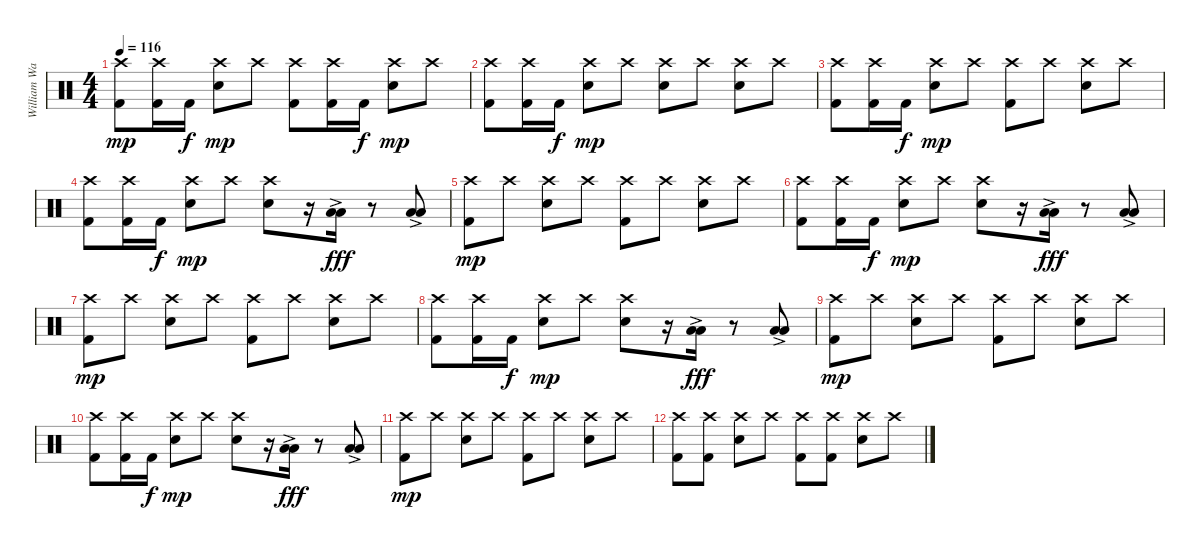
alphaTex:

\track ("William Ward" "William Wa") {instrument percussion}
\staff {score}
\articulation defaults
\ts (4 4)
\tempo 116
\clef neutral
\ks c
("Crash high (hit)" "Kick (hit) 2").8{dy mp} ("Crash high (hit)" "Kick (hit) 2").16 "Kick (hit) 2".16{dy f} ("Crash high (hit)" "Snare (hit) 2").8{dy mp} "Crash high (hit)".8 ("Crash high (hit)" "Kick (hit) 2").8 ("Crash high (hit)" "Kick (hit) 2").16 "Kick (hit) 2".16{dy f} ("Crash high (hit)" "Snare (hit) 2").8{dy mp} "Crash high (hit)".8 |
("Crash high (hit)" "Kick (hit) 2").8 ("Crash high (hit)" "Kick (hit) 2").16 "Kick (hit) 2".16{dy f} ("Crash high (hit)" "Snare (hit) 2").8{dy mp} "Crash high (hit)".8 ("Crash high (hit)" "Snare (hit) 2").8 "Crash high (hit)".8 ("Crash high (hit)" "Snare (hit) 2").8 "Crash high (hit)".8 |
("Crash high (hit)" "Kick (hit) 2").8 ("Crash high (hit)" "Kick (hit) 2").16 "Kick (hit) 2".16{dy f} ("Crash high (hit)" "Snare (hit) 2").8{dy mp} "Crash high (hit)".8 ("Crash high (hit)" "Kick (hit) 2").8 "Crash high (hit)".8 ("Crash high (hit)" "Snare (hit) 2").8 "Crash high (hit)".8 |
("Crash high (hit)" "Kick (hit) 2").8 ("Crash high (hit)" "Kick (hit) 2").16 "Kick (hit) 2".16{dy f} ("Crash high (hit)" "Snare (hit) 2").8{dy mp} "Crash high (hit)".8 ("Crash high (hit)" "Snare (hit) 2").8 r.16 ("Low Tom (hit)"{ac} "Low Tom (hit)"{ac}).16{dy fff} r.8 ("Low Tom (hit)"{ac} "Low Tom (hit)"{ac}).8 |
("Crash high (hit)" "Kick (hit) 2").8{dy mp} "Crash high (hit)".8 ("Crash high (hit)" "Snare (hit) 2").8 "Crash high (hit)".8 ("Crash high (hit)" "Kick (hit) 2").8 "Crash high (hit)".8 ("Crash high (hit)" "Snare (hit) 2").8 "Crash high (hit)".8 |
("Crash high (hit)" "Kick (hit) 2").8 ("Crash high (hit)" "Kick (hit) 2").16 "Kick (hit) 2".16{dy f} ("Crash high (hit)" "Snare (hit) 2").8{dy mp} "Crash high (hit)".8 ("Crash high (hit)" "Snare (hit) 2").8 r.16 ("Low Tom (hit)"{ac} "Low Tom (hit)"{ac}).16{dy fff} r.8 ("Low Tom (hit)"{ac} "Low Tom (hit)"{ac}).8 |
("Crash high (hit)" "Kick (hit) 2").8{dy mp} "Crash high (hit)".8 ("Crash high (hit)" "Snare (hit) 2").8 "Crash high (hit)".8 ("Crash high (hit)" "Kick (hit) 2").8 "Crash high (hit)".8 ("Crash high (hit)" "Snare (hit) 2").8 "Crash high (hit)".8 |
("Crash high (hit)" "Kick (hit) 2").8 ("Crash high (hit)" "Kick (hit) 2").16 "Kick (hit) 2".16{dy f} ("Crash high (hit)" "Snare (hit) 2").8{dy mp} "Crash high (hit)".8 ("Crash high (hit)" "Snare (hit) 2").8 r.16 ("Low Tom (hit)"{ac} "Low Tom (hit)"{ac}).16{dy fff} r.8 ("Low Tom (hit)"{ac} "Low Tom (hit)"{ac}).8 |
("Crash high (hit)" "Kick (hit) 2").8{dy mp} "Crash high (hit)".8 ("Crash high (hit)" "Snare (hit) 2").8 "Crash high (hit)".8 ("Crash high (hit)" "Kick (hit) 2").8 "Crash high (hit)".8 ("Crash high (hit)" "Snare (hit) 2").8 "Crash high (hit)".8 |
("Crash high (hit)" "Kick (hit) 2").8 ("Crash high (hit)" "Kick (hit) 2").16 "Kick (hit) 2".16{dy f} ("Crash high (hit)" "Snare (hit) 2").8{dy mp} "Crash high (hit)".8 ("Crash high (hit)" "Snare (hit) 2").8 r.16 ("Low Tom (hit)"{ac} "Low Tom (hit)"{ac}).16{dy fff} r.8 ("Low Tom (hit)"{ac} "Low Tom (hit)"{ac}).8 |
("Crash high (hit)" "Kick (hit) 2").8{dy mp} "Crash high (hit)".8 ("Crash high (hit)" "Snare (hit) 2").8 "Crash high (hit)".8 ("Crash high (hit)" "Kick (hit) 2").8 "Crash high (hit)".8 ("Crash high (hit)" "Snare (hit) 2").8 "Crash high (hit)".8 |
("Crash high (hit)" "Kick (hit) 2").8 ("Crash high (hit)" "Kick (hit) 2").8 ("Crash high (hit)" "Snare (hit) 2").8 "Crash high (hit)".8 ("Crash high (hit)" "Kick (hit) 2").8 ("Crash high (hit)" "Kick (hit) 2").8 ("Crash high (hit)" "Snare (hit) 2").8 "Crash high (hit)".8
